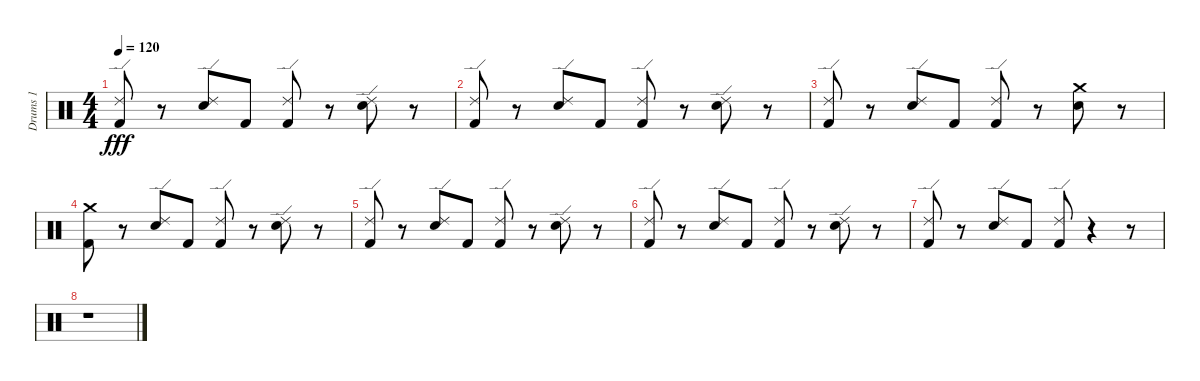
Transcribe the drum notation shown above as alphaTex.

\track ("Drums 1" "Drums 1") {instrument percussion}
\staff {score}
\articulation defaults
\ts (4 4)
\tempo 120
\clef neutral
\ks c
("Kick (hit) 2" "Ride (edge) 2").8{dy fff} r.8 ("Electric Snare (hit)" "Ride (edge) 2").8 "Kick (hit) 2".8 ("Kick (hit) 2" "Ride (edge) 2").8 r.8 ("Electric Snare (hit)" "Ride (edge) 2").8 r.8 |
("Kick (hit) 2" "Ride (edge) 2").8 r.8 ("Electric Snare (hit)" "Ride (edge) 2").8 "Kick (hit) 2".8 ("Kick (hit) 2" "Ride (edge) 2").8 r.8 ("Electric Snare (hit)" "Ride (edge) 2").8 r.8 |
("Kick (hit) 2" "Ride (edge) 2").8 r.8 ("Electric Snare (hit)" "Ride (edge) 2").8 "Kick (hit) 2".8 ("Kick (hit) 2" "Ride (edge) 2").8 r.8 ("Electric Snare (hit)" "Crash medium (hit)").8 r.8 |
("Kick (hit) 2" "Crash medium (hit)").8 r.8 ("Electric Snare (hit)" "Ride (edge) 2").8 "Kick (hit) 2".8 ("Kick (hit) 2" "Ride (edge) 2").8 r.8 ("Electric Snare (hit)" "Ride (edge) 2").8 r.8 |
("Kick (hit) 2" "Ride (edge) 2").8 r.8 ("Electric Snare (hit)" "Ride (edge) 2").8 "Kick (hit) 2".8 ("Kick (hit) 2" "Ride (edge) 2").8 r.8 ("Electric Snare (hit)" "Ride (edge) 2").8 r.8 |
("Kick (hit) 2" "Ride (edge) 2").8 r.8 ("Electric Snare (hit)" "Ride (edge) 2").8 "Kick (hit) 2".8 ("Kick (hit) 2" "Ride (edge) 2").8 r.8 ("Electric Snare (hit)" "Ride (edge) 2").8 r.8 |
("Kick (hit) 2" "Ride (edge) 2").8 r.8 ("Electric Snare (hit)" "Ride (edge) 2").8 "Kick (hit) 2".8 ("Kick (hit) 2" "Ride (edge) 2").8 r.4 r.8 |
r.1
